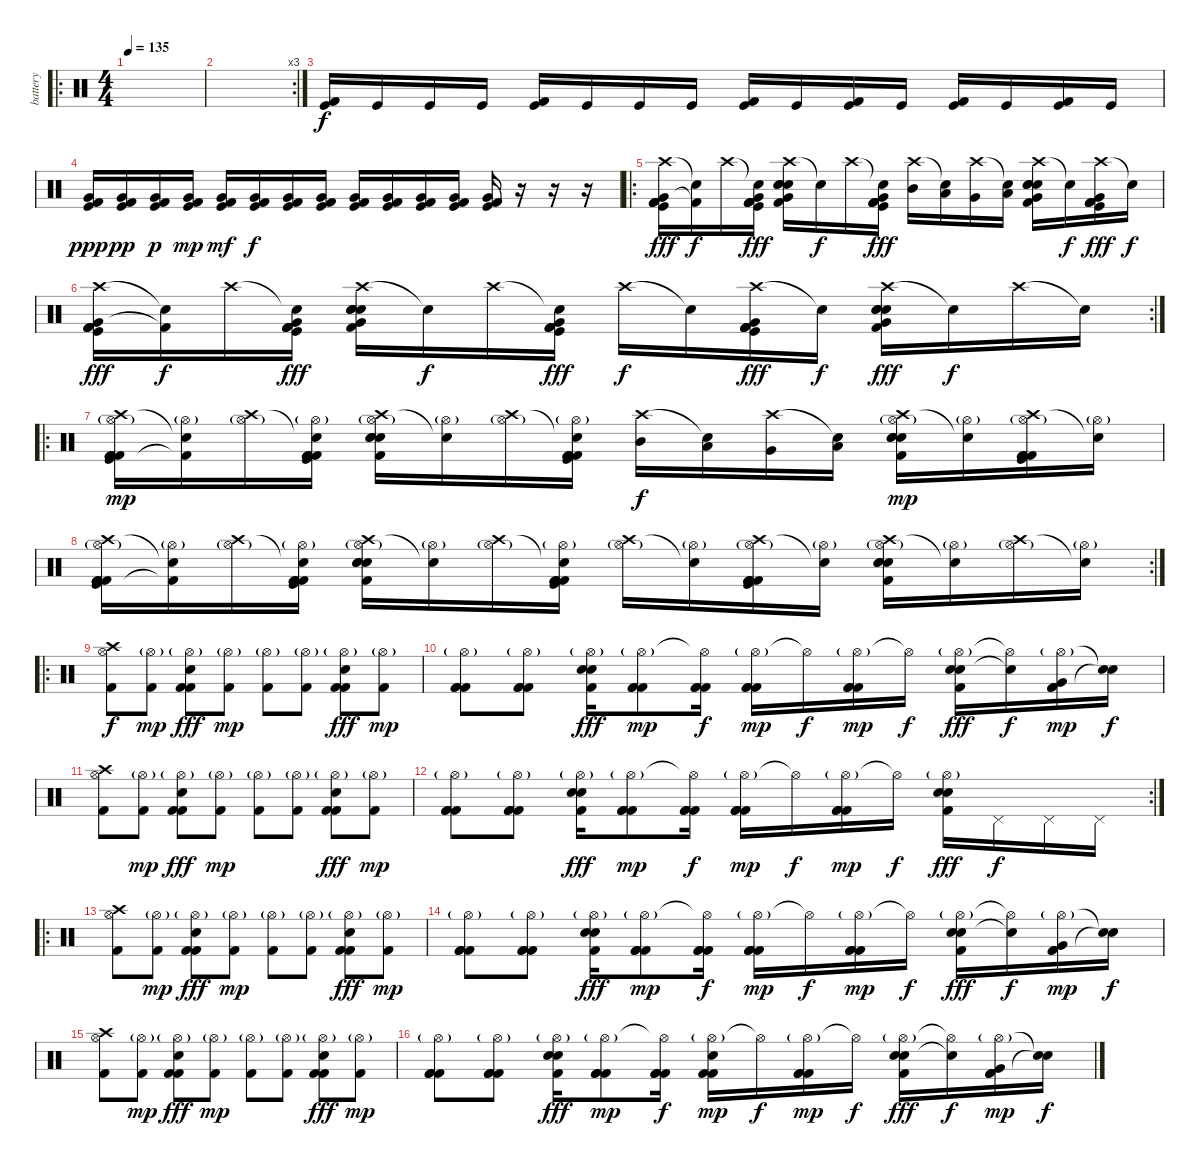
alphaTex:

\track ("battery" "battery") {instrument percussion}
\staff {score}
\articulation defaults
\ro
\ts (4 4)
\tempo 135
\clef neutral
\ks c
|
\rc 3
|
("Kick (hit) 2" "Kick (hit)").16 "Kick (hit)".16 "Kick (hit)".16 "Kick (hit)".16 ("Kick (hit) 2" "Kick (hit)").16 "Kick (hit)".16 "Kick (hit)".16 "Kick (hit)".16 ("Kick (hit) 2" "Kick (hit)").16 "Kick (hit)".16 ("Kick (hit) 2" "Kick (hit)").16 "Kick (hit)".16 ("Kick (hit) 2" "Kick (hit)").16 "Kick (hit)".16 ("Kick (hit) 2" "Kick (hit)").16 "Kick (hit)".16 |
("Very Low Tom (hit)" "Kick (hit) 2" "Kick (hit)").16{dy ppp} ("Very Low Tom (hit)" "Kick (hit) 2" "Kick (hit)").16{dy pp} ("Very Low Tom (hit)" "Kick (hit) 2" "Kick (hit)").16{dy p} ("Very Low Tom (hit)" "Kick (hit) 2" "Kick (hit)").16{dy mp} ("Very Low Tom (hit)" "Kick (hit) 2" "Kick (hit)").16{dy mf} ("Very Low Tom (hit)" "Kick (hit) 2" "Kick (hit)").16{dy f} ("Very Low Tom (hit)" "Kick (hit) 2" "Kick (hit)").16 ("Very Low Tom (hit)" "Kick (hit) 2" "Kick (hit)").16 ("Very Low Tom (hit)" "Kick (hit) 2" "Kick (hit)").16 ("Very Low Tom (hit)" "Kick (hit) 2" "Kick (hit)").16 ("Very Low Tom (hit)" "Kick (hit) 2" "Kick (hit)").16 ("Very Low Tom (hit)" "Kick (hit) 2" "Kick (hit)").16 ("Very Low Tom (hit)" "Kick (hit) 2" "Kick (hit)").16 r.16 r.16 r.16 |
\ro
("Crash high (hit)" "Very Low Tom (hit)" "Kick (hit)" "Kick (hit) 2" "Kick (hit) 2" "Kick (hit) 2").16{dy fff} ("Snare (hit)"{t} "Kick (hit) 2"{t}).16{dy f} "Crash high (hit)".16 ("Snare (hit)"{t} "Very Low Tom (hit)" "Kick (hit)" "Kick (hit) 2" "Kick (hit) 2" "Kick (hit) 2").16{dy fff} ("Crash high (hit)" "Very Low Tom (hit)" "Kick (hit) 2" "Electric Snare (hit)" "Electric Snare (hit)" "Electric Snare (hit)").16 "Snare (hit)"{t}.16{dy f} "Crash high (hit)".16 ("Snare (hit)"{t} "Very Low Tom (hit)" "Kick (hit)" "Kick (hit) 2" "Kick (hit) 2" "Kick (hit) 2").16{dy fff} ("Crash high (hit)" "Mid Tom (hit)").16 ("Snare (hit)"{t} "Low Tom (hit)").16 ("Crash high (hit)" "Very Low Tom (hit)").16 ("Snare (hit)"{t} "Low Floor Tom (hit)").16 ("Crash high (hit)" "Very Low Tom (hit)" "Kick (hit) 2" "Electric Snare (hit)" "Electric Snare (hit)" "Electric Snare (hit)").16 "Snare (hit)"{t}.16{dy f} ("Crash high (hit)" "Very Low Tom (hit)" "Kick (hit)" "Kick (hit) 2" "Kick (hit) 2" "Kick (hit) 2").16{dy fff} "Snare (hit)"{t}.16{dy f} |
\rc 2
("Crash high (hit)" "Very Low Tom (hit)" "Kick (hit)" "Kick (hit) 2" "Kick (hit) 2" "Kick (hit) 2").16{dy fff} ("Snare (hit)"{t} "Kick (hit) 2"{t}).16{dy f} "Crash high (hit)".16 ("Snare (hit)"{t} "Very Low Tom (hit)" "Kick (hit)" "Kick (hit) 2" "Kick (hit) 2" "Kick (hit) 2").16{dy fff} ("Crash high (hit)" "Very Low Tom (hit)" "Kick (hit) 2" "Electric Snare (hit)" "Electric Snare (hit)" "Electric Snare (hit)").16 "Snare (hit)"{t}.16{dy f} "Crash high (hit)".16 ("Snare (hit)"{t} "Very Low Tom (hit)" "Kick (hit)" "Kick (hit) 2" "Kick (hit) 2" "Kick (hit) 2").16{dy fff} "Crash high (hit)".16{dy f} "Snare (hit)"{t}.16 ("Crash high (hit)" "Very Low Tom (hit)" "Kick (hit)" "Kick (hit) 2" "Kick (hit) 2" "Kick (hit) 2").16{dy fff} "Snare (hit)"{t}.16{dy f} ("Crash high (hit)" "Very Low Tom (hit)" "Kick (hit) 2" "Electric Snare (hit)" "Electric Snare (hit)" "Electric Snare (hit)").16{dy fff} "Snare (hit)"{t}.16{dy f} "Crash high (hit)".16 "Snare (hit)"{t}.16 |
\ro
("Crash high (hit)" "Hi-Hat (open)"{g} "Kick (hit)" "Kick (hit) 2" "Kick (hit) 2" "Kick (hit) 2").16{dy mp} ("Snare (hit)"{t} "Hi-Hat (open)"{g} "Kick (hit) 2"{t}).16 ("Crash high (hit)" "Hi-Hat (open)"{g}).16 ("Snare (hit)"{t} "Hi-Hat (open)"{g} "Kick (hit)" "Kick (hit) 2" "Kick (hit) 2" "Kick (hit) 2").16 ("Crash high (hit)" "Hi-Hat (open)"{g} "Kick (hit) 2" "Electric Snare (hit)" "Electric Snare (hit)" "Electric Snare (hit)").16 ("Snare (hit)"{t} "Hi-Hat (open)"{g}).16 ("Crash high (hit)" "Hi-Hat (open)"{g}).16 ("Snare (hit)"{t} "Hi-Hat (open)"{g} "Kick (hit)" "Kick (hit) 2" "Kick (hit) 2" "Kick (hit) 2").16 ("Crash high (hit)" "Mid Tom (hit)").16{dy f} ("Snare (hit)"{t} "Low Tom (hit)").16 ("Crash high (hit)" "Very Low Tom (hit)").16 ("Snare (hit)"{t} "Low Floor Tom (hit)").16 ("Crash high (hit)" "Hi-Hat (open)"{g} "Kick (hit) 2" "Electric Snare (hit)" "Electric Snare (hit)" "Electric Snare (hit)").16{dy mp} ("Snare (hit)"{t} "Hi-Hat (open)"{g}).16 ("Crash high (hit)" "Hi-Hat (open)"{g} "Kick (hit)" "Kick (hit) 2" "Kick (hit) 2" "Kick (hit) 2").16 ("Snare (hit)"{t} "Hi-Hat (open)"{g}).16 |
\rc 2
("Crash high (hit)" "Hi-Hat (open)"{g} "Kick (hit)" "Kick (hit) 2" "Kick (hit) 2" "Kick (hit) 2").16 ("Snare (hit)"{t} "Hi-Hat (open)"{g} "Kick (hit) 2"{t}).16 ("Crash high (hit)" "Hi-Hat (open)"{g}).16 ("Snare (hit)"{t} "Hi-Hat (open)"{g} "Kick (hit)" "Kick (hit) 2" "Kick (hit) 2" "Kick (hit) 2").16 ("Crash high (hit)" "Hi-Hat (open)"{g} "Kick (hit) 2" "Electric Snare (hit)" "Electric Snare (hit)" "Electric Snare (hit)").16 ("Snare (hit)"{t} "Hi-Hat (open)"{g}).16 ("Crash high (hit)" "Hi-Hat (open)"{g}).16 ("Snare (hit)"{t} "Hi-Hat (open)"{g} "Kick (hit)" "Kick (hit) 2" "Kick (hit) 2" "Kick (hit) 2").16 ("Crash high (hit)" "Hi-Hat (open)"{g}).16 ("Snare (hit)"{t} "Hi-Hat (open)"{g}).16 ("Crash high (hit)" "Hi-Hat (open)"{g} "Kick (hit)" "Kick (hit) 2" "Kick (hit) 2" "Kick (hit) 2").16 ("Snare (hit)"{t} "Hi-Hat (open)"{g}).16 ("Crash high (hit)" "Hi-Hat (open)"{g} "Kick (hit) 2" "Electric Snare (hit)" "Electric Snare (hit)" "Electric Snare (hit)").16 ("Snare (hit)"{t} "Hi-Hat (open)"{g}).16 ("Crash high (hit)" "Hi-Hat (open)"{g}).16 ("Snare (hit)"{t} "Hi-Hat (open)"{g}).16 |
\ro
("Hi-Hat (open)" "Crash high (hit)" "Kick (hit) 2").8{dy f} ("Hi-Hat (open)"{g} "Kick (hit) 2").8{dy mp} ("Hi-Hat (open)"{g} "Kick (hit) 2" "Electric Snare (hit)" "Kick (hit) 2").8{dy fff} ("Hi-Hat (open)"{g} "Kick (hit) 2").8{dy mp} ("Hi-Hat (open)"{g} "Kick (hit) 2").8 ("Hi-Hat (open)"{g} "Kick (hit) 2").8 ("Hi-Hat (open)"{g} "Kick (hit) 2" "Electric Snare (hit)" "Kick (hit) 2").8{dy fff} ("Hi-Hat (open)"{g} "Kick (hit) 2").8{dy mp} |
("Hi-Hat (open)"{g} "Kick (hit) 2" "Kick (hit) 2" "Kick (hit) 2").8 ("Hi-Hat (open)"{g} "Kick (hit) 2" "Kick (hit) 2" "Kick (hit) 2").8 ("Hi-Hat (open)"{g} "Electric Snare (hit)" "Kick (hit) 2" "Electric Snare (hit)").16{dy fff} ("Hi-Hat (open)"{g} "Kick (hit) 2" "Kick (hit) 2" "Kick (hit) 2").8{dy mp} ("Hi-Hat (open)"{t} "Kick (hit) 2" "Kick (hit) 2" "Kick (hit) 2").16{dy f} ("Hi-Hat (open)"{g} "Kick (hit) 2" "Kick (hit) 2" "Kick (hit) 2").16{dy mp} "Hi-Hat (open)"{t}.16{dy f} ("Hi-Hat (open)"{g} "Kick (hit) 2" "Kick (hit) 2" "Kick (hit) 2").16{dy mp} "Hi-Hat (open)"{t}.16{dy f} ("Hi-Hat (open)"{g} "Electric Snare (hit)" "Kick (hit) 2" "Electric Snare (hit)").16{dy fff} ("Hi-Hat (open)"{t} "Snare (hit)"{t}).16{dy f} ("Hi-Hat (open)"{g} "Kick (hit) 2" "Very Low Tom (hit)" "Kick (hit) 2").16{dy mp} ("Snare (hit)"{t} "Snare (hit)"{t}).16{dy f} |
("Hi-Hat (open)" "Crash high (hit)" "Kick (hit) 2").8 ("Hi-Hat (open)"{g} "Kick (hit) 2").8{dy mp} ("Hi-Hat (open)"{g} "Kick (hit) 2" "Electric Snare (hit)" "Kick (hit) 2").8{dy fff} ("Hi-Hat (open)"{g} "Kick (hit) 2").8{dy mp} ("Hi-Hat (open)"{g} "Kick (hit) 2").8 ("Hi-Hat (open)"{g} "Kick (hit) 2").8 ("Hi-Hat (open)"{g} "Kick (hit) 2" "Electric Snare (hit)" "Kick (hit) 2").8{dy fff} ("Hi-Hat (open)"{g} "Kick (hit) 2").8{dy mp} |
\rc 2
("Hi-Hat (open)"{g} "Kick (hit) 2" "Kick (hit) 2" "Kick (hit) 2").8 ("Hi-Hat (open)"{g} "Kick (hit) 2" "Kick (hit) 2" "Kick (hit) 2").8 ("Hi-Hat (open)"{g} "Electric Snare (hit)" "Kick (hit) 2" "Electric Snare (hit)").16{dy fff} ("Hi-Hat (open)"{g} "Kick (hit) 2" "Kick (hit) 2" "Kick (hit) 2").8{dy mp} ("Hi-Hat (open)"{t} "Kick (hit) 2" "Kick (hit) 2" "Kick (hit) 2").16{dy f} ("Hi-Hat (open)"{g} "Kick (hit) 2" "Kick (hit) 2" "Kick (hit) 2").16{dy mp} "Hi-Hat (open)"{t}.16{dy f} ("Hi-Hat (open)"{g} "Kick (hit) 2" "Kick (hit) 2" "Kick (hit) 2").16{dy mp} "Hi-Hat (open)"{t}.16{dy f} ("Hi-Hat (open)"{g} "Electric Snare (hit)" "Kick (hit) 2" "Electric Snare (hit)").16{dy fff} "Pedal Hi-Hat (hit)".16{dy f} "Pedal Hi-Hat (hit)".16 "Pedal Hi-Hat (hit)".16 |
\ro
("Hi-Hat (open)" "Crash high (hit)" "Kick (hit) 2").8 ("Hi-Hat (open)"{g} "Kick (hit) 2").8{dy mp} ("Hi-Hat (open)"{g} "Kick (hit) 2" "Electric Snare (hit)" "Kick (hit) 2").8{dy fff} ("Hi-Hat (open)"{g} "Kick (hit) 2").8{dy mp} ("Hi-Hat (open)"{g} "Kick (hit) 2").8 ("Hi-Hat (open)"{g} "Kick (hit) 2").8 ("Hi-Hat (open)"{g} "Kick (hit) 2" "Electric Snare (hit)" "Kick (hit) 2").8{dy fff} ("Hi-Hat (open)"{g} "Kick (hit) 2").8{dy mp} |
("Hi-Hat (open)"{g} "Kick (hit) 2" "Kick (hit) 2" "Kick (hit) 2").8 ("Hi-Hat (open)"{g} "Kick (hit) 2" "Kick (hit) 2" "Kick (hit) 2").8 ("Hi-Hat (open)"{g} "Electric Snare (hit)" "Kick (hit) 2" "Electric Snare (hit)").16{dy fff} ("Hi-Hat (open)"{g} "Kick (hit) 2" "Kick (hit) 2" "Kick (hit) 2").8{dy mp} ("Hi-Hat (open)"{t} "Kick (hit) 2" "Kick (hit) 2" "Kick (hit) 2").16{dy f} ("Hi-Hat (open)"{g} "Kick (hit) 2" "Kick (hit) 2" "Kick (hit) 2").16{dy mp} "Hi-Hat (open)"{t}.16{dy f} ("Hi-Hat (open)"{g} "Kick (hit) 2" "Kick (hit) 2" "Kick (hit) 2").16{dy mp} "Hi-Hat (open)"{t}.16{dy f} ("Hi-Hat (open)"{g} "Electric Snare (hit)" "Kick (hit) 2" "Electric Snare (hit)").16{dy fff} ("Hi-Hat (open)"{t} "Snare (hit)"{t}).16{dy f} ("Hi-Hat (open)"{g} "Kick (hit) 2" "Very Low Tom (hit)" "Kick (hit) 2").16{dy mp} ("Snare (hit)"{t} "Snare (hit)"{t}).16{dy f} |
("Hi-Hat (open)" "Crash high (hit)" "Kick (hit) 2").8 ("Hi-Hat (open)"{g} "Kick (hit) 2").8{dy mp} ("Hi-Hat (open)"{g} "Kick (hit) 2" "Electric Snare (hit)" "Kick (hit) 2").8{dy fff} ("Hi-Hat (open)"{g} "Kick (hit) 2").8{dy mp} ("Hi-Hat (open)"{g} "Kick (hit) 2").8 ("Hi-Hat (open)"{g} "Kick (hit) 2").8 ("Hi-Hat (open)"{g} "Kick (hit) 2" "Electric Snare (hit)" "Kick (hit) 2").8{dy fff} ("Hi-Hat (open)"{g} "Kick (hit) 2").8{dy mp} |
("Hi-Hat (open)"{g} "Kick (hit) 2" "Kick (hit) 2" "Kick (hit) 2").8 ("Hi-Hat (open)"{g} "Kick (hit) 2" "Kick (hit) 2" "Kick (hit) 2").8 ("Hi-Hat (open)"{g} "Electric Snare (hit)" "Kick (hit) 2" "Electric Snare (hit)").16{dy fff} ("Hi-Hat (open)"{g} "Kick (hit) 2" "Kick (hit) 2" "Kick (hit) 2").8{dy mp} ("Hi-Hat (open)"{t} "Kick (hit) 2" "Kick (hit) 2" "Kick (hit) 2").16{dy f} ("Hi-Hat (open)"{g} "Snare (hit)" "Kick (hit) 2" "Kick (hit) 2").16{dy mp} "Hi-Hat (open)"{t}.16{dy f} ("Hi-Hat (open)"{g} "Kick (hit) 2" "Kick (hit) 2" "Kick (hit) 2").16{dy mp} "Hi-Hat (open)"{t}.16{dy f} ("Hi-Hat (open)"{g} "Electric Snare (hit)" "Kick (hit) 2" "Electric Snare (hit)").16{dy fff} ("Hi-Hat (open)"{t} "Snare (hit)"{t}).16{dy f} ("Hi-Hat (open)"{g} "Kick (hit) 2" "Very Low Tom (hit)" "Kick (hit) 2").16{dy mp} ("Snare (hit)"{t} "Snare (hit)"{t}).16{dy f}
